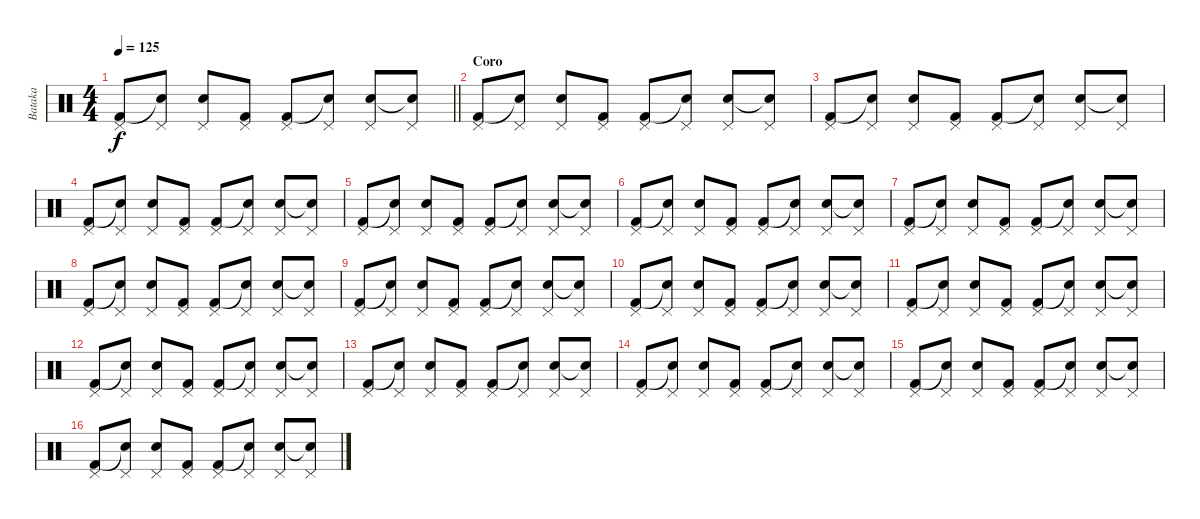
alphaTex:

\track ("Bataka" "Bataka") {instrument percussion}
\staff {score}
\articulation defaults
\ts (4 4)
\tempo 125
\clef neutral
\barLineRight lightlight
\ks c
("Pedal Hi-Hat (hit)" "Kick (hit) 2").8{dy f} ("Pedal Hi-Hat (hit)" "Snare (hit)"{t}).8 ("Pedal Hi-Hat (hit)" "Electric Snare (hit)").8 ("Pedal Hi-Hat (hit)" "Kick (hit) 2").8 ("Pedal Hi-Hat (hit)" "Kick (hit) 2").8 ("Pedal Hi-Hat (hit)" "Snare (hit)"{t}).8 ("Pedal Hi-Hat (hit)" "Electric Snare (hit)").8 ("Pedal Hi-Hat (hit)" "Snare (hit)"{t}).8 |
\section ("" "Coro")
("Pedal Hi-Hat (hit)" "Kick (hit) 2").8 ("Pedal Hi-Hat (hit)" "Snare (hit)"{t}).8 ("Pedal Hi-Hat (hit)" "Electric Snare (hit)").8 ("Pedal Hi-Hat (hit)" "Kick (hit) 2").8 ("Pedal Hi-Hat (hit)" "Kick (hit) 2").8 ("Pedal Hi-Hat (hit)" "Snare (hit)"{t}).8 ("Pedal Hi-Hat (hit)" "Electric Snare (hit)").8 ("Pedal Hi-Hat (hit)" "Snare (hit)"{t}).8 |
("Pedal Hi-Hat (hit)" "Kick (hit) 2").8 ("Pedal Hi-Hat (hit)" "Snare (hit)"{t}).8 ("Pedal Hi-Hat (hit)" "Electric Snare (hit)").8 ("Pedal Hi-Hat (hit)" "Kick (hit) 2").8 ("Pedal Hi-Hat (hit)" "Kick (hit) 2").8 ("Pedal Hi-Hat (hit)" "Snare (hit)"{t}).8 ("Pedal Hi-Hat (hit)" "Electric Snare (hit)").8 ("Pedal Hi-Hat (hit)" "Snare (hit)"{t}).8 |
("Pedal Hi-Hat (hit)" "Kick (hit) 2").8 ("Pedal Hi-Hat (hit)" "Snare (hit)"{t}).8 ("Pedal Hi-Hat (hit)" "Electric Snare (hit)").8 ("Pedal Hi-Hat (hit)" "Kick (hit) 2").8 ("Pedal Hi-Hat (hit)" "Kick (hit) 2").8 ("Pedal Hi-Hat (hit)" "Snare (hit)"{t}).8 ("Pedal Hi-Hat (hit)" "Electric Snare (hit)").8 ("Pedal Hi-Hat (hit)" "Snare (hit)"{t}).8 |
("Pedal Hi-Hat (hit)" "Kick (hit) 2").8 ("Pedal Hi-Hat (hit)" "Snare (hit)"{t}).8 ("Pedal Hi-Hat (hit)" "Electric Snare (hit)").8 ("Pedal Hi-Hat (hit)" "Kick (hit) 2").8 ("Pedal Hi-Hat (hit)" "Kick (hit) 2").8 ("Pedal Hi-Hat (hit)" "Snare (hit)"{t}).8 ("Pedal Hi-Hat (hit)" "Electric Snare (hit)").8 ("Pedal Hi-Hat (hit)" "Snare (hit)"{t}).8 |
("Pedal Hi-Hat (hit)" "Kick (hit) 2").8 ("Pedal Hi-Hat (hit)" "Snare (hit)"{t}).8 ("Pedal Hi-Hat (hit)" "Electric Snare (hit)").8 ("Pedal Hi-Hat (hit)" "Kick (hit) 2").8 ("Pedal Hi-Hat (hit)" "Kick (hit) 2").8 ("Pedal Hi-Hat (hit)" "Snare (hit)"{t}).8 ("Pedal Hi-Hat (hit)" "Electric Snare (hit)").8 ("Pedal Hi-Hat (hit)" "Snare (hit)"{t}).8 |
("Pedal Hi-Hat (hit)" "Kick (hit) 2").8 ("Pedal Hi-Hat (hit)" "Snare (hit)"{t}).8 ("Pedal Hi-Hat (hit)" "Electric Snare (hit)").8 ("Pedal Hi-Hat (hit)" "Kick (hit) 2").8 ("Pedal Hi-Hat (hit)" "Kick (hit) 2").8 ("Pedal Hi-Hat (hit)" "Snare (hit)"{t}).8 ("Pedal Hi-Hat (hit)" "Electric Snare (hit)").8 ("Pedal Hi-Hat (hit)" "Snare (hit)"{t}).8 |
("Pedal Hi-Hat (hit)" "Kick (hit) 2").8 ("Pedal Hi-Hat (hit)" "Snare (hit)"{t}).8 ("Pedal Hi-Hat (hit)" "Electric Snare (hit)").8 ("Pedal Hi-Hat (hit)" "Kick (hit) 2").8 ("Pedal Hi-Hat (hit)" "Kick (hit) 2").8 ("Pedal Hi-Hat (hit)" "Snare (hit)"{t}).8 ("Pedal Hi-Hat (hit)" "Electric Snare (hit)").8 ("Pedal Hi-Hat (hit)" "Snare (hit)"{t}).8 |
("Pedal Hi-Hat (hit)" "Kick (hit) 2").8 ("Pedal Hi-Hat (hit)" "Snare (hit)"{t}).8 ("Pedal Hi-Hat (hit)" "Electric Snare (hit)").8 ("Pedal Hi-Hat (hit)" "Kick (hit) 2").8 ("Pedal Hi-Hat (hit)" "Kick (hit) 2").8 ("Pedal Hi-Hat (hit)" "Snare (hit)"{t}).8 ("Pedal Hi-Hat (hit)" "Electric Snare (hit)").8 ("Pedal Hi-Hat (hit)" "Snare (hit)"{t}).8 |
("Pedal Hi-Hat (hit)" "Kick (hit) 2").8 ("Pedal Hi-Hat (hit)" "Snare (hit)"{t}).8 ("Pedal Hi-Hat (hit)" "Electric Snare (hit)").8 ("Pedal Hi-Hat (hit)" "Kick (hit) 2").8 ("Pedal Hi-Hat (hit)" "Kick (hit) 2").8 ("Pedal Hi-Hat (hit)" "Snare (hit)"{t}).8 ("Pedal Hi-Hat (hit)" "Electric Snare (hit)").8 ("Pedal Hi-Hat (hit)" "Snare (hit)"{t}).8 |
("Pedal Hi-Hat (hit)" "Kick (hit) 2").8 ("Pedal Hi-Hat (hit)" "Snare (hit)"{t}).8 ("Pedal Hi-Hat (hit)" "Electric Snare (hit)").8 ("Pedal Hi-Hat (hit)" "Kick (hit) 2").8 ("Pedal Hi-Hat (hit)" "Kick (hit) 2").8 ("Pedal Hi-Hat (hit)" "Snare (hit)"{t}).8 ("Pedal Hi-Hat (hit)" "Electric Snare (hit)").8 ("Pedal Hi-Hat (hit)" "Snare (hit)"{t}).8 |
("Pedal Hi-Hat (hit)" "Kick (hit) 2").8 ("Pedal Hi-Hat (hit)" "Snare (hit)"{t}).8 ("Pedal Hi-Hat (hit)" "Electric Snare (hit)").8 ("Pedal Hi-Hat (hit)" "Kick (hit) 2").8 ("Pedal Hi-Hat (hit)" "Kick (hit) 2").8 ("Pedal Hi-Hat (hit)" "Snare (hit)"{t}).8 ("Pedal Hi-Hat (hit)" "Electric Snare (hit)").8 ("Pedal Hi-Hat (hit)" "Snare (hit)"{t}).8 |
("Pedal Hi-Hat (hit)" "Kick (hit) 2").8 ("Pedal Hi-Hat (hit)" "Snare (hit)"{t}).8 ("Pedal Hi-Hat (hit)" "Electric Snare (hit)").8 ("Pedal Hi-Hat (hit)" "Kick (hit) 2").8 ("Pedal Hi-Hat (hit)" "Kick (hit) 2").8 ("Pedal Hi-Hat (hit)" "Snare (hit)"{t}).8 ("Pedal Hi-Hat (hit)" "Electric Snare (hit)").8 ("Pedal Hi-Hat (hit)" "Snare (hit)"{t}).8 |
("Pedal Hi-Hat (hit)" "Kick (hit) 2").8 ("Pedal Hi-Hat (hit)" "Snare (hit)"{t}).8 ("Pedal Hi-Hat (hit)" "Electric Snare (hit)").8 ("Pedal Hi-Hat (hit)" "Kick (hit) 2").8 ("Pedal Hi-Hat (hit)" "Kick (hit) 2").8 ("Pedal Hi-Hat (hit)" "Snare (hit)"{t}).8 ("Pedal Hi-Hat (hit)" "Electric Snare (hit)").8 ("Pedal Hi-Hat (hit)" "Snare (hit)"{t}).8 |
("Pedal Hi-Hat (hit)" "Kick (hit) 2").8 ("Pedal Hi-Hat (hit)" "Snare (hit)"{t}).8 ("Pedal Hi-Hat (hit)" "Electric Snare (hit)").8 ("Pedal Hi-Hat (hit)" "Kick (hit) 2").8 ("Pedal Hi-Hat (hit)" "Kick (hit) 2").8 ("Pedal Hi-Hat (hit)" "Snare (hit)"{t}).8 ("Pedal Hi-Hat (hit)" "Electric Snare (hit)").8 ("Pedal Hi-Hat (hit)" "Snare (hit)"{t}).8 |
("Pedal Hi-Hat (hit)" "Kick (hit) 2").8 ("Pedal Hi-Hat (hit)" "Snare (hit)"{t}).8 ("Pedal Hi-Hat (hit)" "Electric Snare (hit)").8 ("Pedal Hi-Hat (hit)" "Kick (hit) 2").8 ("Pedal Hi-Hat (hit)" "Kick (hit) 2").8 ("Pedal Hi-Hat (hit)" "Snare (hit)"{t}).8 ("Pedal Hi-Hat (hit)" "Electric Snare (hit)").8 ("Pedal Hi-Hat (hit)" "Snare (hit)"{t}).8
